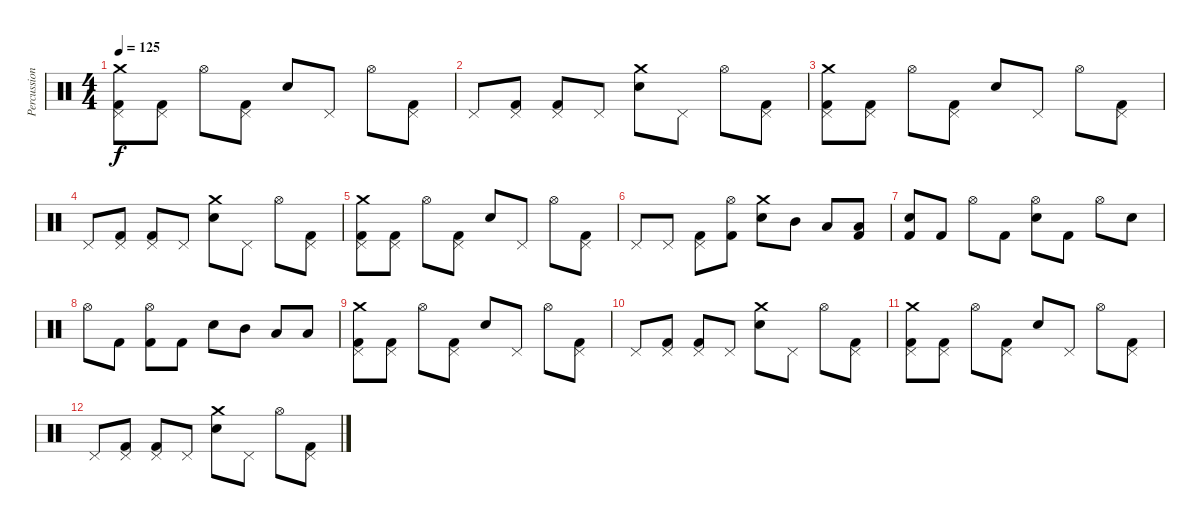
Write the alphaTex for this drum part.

\track ("Percussion" "Percussion") {instrument percussion}
\staff {score}
\articulation defaults
\ts (4 4)
\tempo 125
\clef neutral
\ks c
("Crash medium (hit)" "Pedal Hi-Hat (hit)" "Kick (hit) 2").8{dy f} ("Pedal Hi-Hat (hit)" "Kick (hit) 2").8 "Hi-Hat (open)".8 ("Pedal Hi-Hat (hit)" "Kick (hit) 2").8 "Electric Snare (hit)".8 "Pedal Hi-Hat (hit)".8 "Hi-Hat (open)".8 ("Pedal Hi-Hat (hit)" "Kick (hit) 2").8 |
"Pedal Hi-Hat (hit)".8 ("Pedal Hi-Hat (hit)" "Kick (hit) 2").8 ("Pedal Hi-Hat (hit)" "Kick (hit) 2").8 "Pedal Hi-Hat (hit)".8 ("Crash medium (hit)" "Electric Snare (hit)").8 "Pedal Hi-Hat (hit)".8 "Hi-Hat (open)".8 ("Pedal Hi-Hat (hit)" "Kick (hit) 2").8 |
("Crash medium (hit)" "Pedal Hi-Hat (hit)" "Kick (hit) 2").8 ("Pedal Hi-Hat (hit)" "Kick (hit) 2").8 "Hi-Hat (open)".8 ("Pedal Hi-Hat (hit)" "Kick (hit) 2").8 "Electric Snare (hit)".8 "Pedal Hi-Hat (hit)".8 "Hi-Hat (open)".8 ("Pedal Hi-Hat (hit)" "Kick (hit) 2").8 |
"Pedal Hi-Hat (hit)".8 ("Pedal Hi-Hat (hit)" "Kick (hit) 2").8 ("Pedal Hi-Hat (hit)" "Kick (hit) 2").8 "Pedal Hi-Hat (hit)".8 ("Crash medium (hit)" "Electric Snare (hit)").8 "Pedal Hi-Hat (hit)".8 "Hi-Hat (open)".8 ("Pedal Hi-Hat (hit)" "Kick (hit) 2").8 |
("Crash medium (hit)" "Pedal Hi-Hat (hit)" "Kick (hit) 2").8 ("Pedal Hi-Hat (hit)" "Kick (hit) 2").8 "Hi-Hat (open)".8 ("Pedal Hi-Hat (hit)" "Kick (hit) 2").8 "Electric Snare (hit)".8 "Pedal Hi-Hat (hit)".8 "Hi-Hat (open)".8 ("Pedal Hi-Hat (hit)" "Kick (hit) 2").8 |
"Pedal Hi-Hat (hit)".8 "Pedal Hi-Hat (hit)".8 ("Pedal Hi-Hat (hit)" "Kick (hit) 2").8 ("Hi-Hat (open)" "Kick (hit) 2").8 ("Crash medium (hit)" "Electric Snare (hit)").8 "Mid Tom (hit)".8 "Low Tom (hit)".8 ("Low Floor Tom (hit)" "Kick (hit) 2").8 |
("Electric Snare (hit)" "Kick (hit) 2").8 "Kick (hit) 2".8 "Hi-Hat (open)".8 "Kick (hit) 2".8 ("Hi-Hat (open)" "Electric Snare (hit)").8 "Kick (hit) 2".8 "Hi-Hat (open)".8 "Electric Snare (hit)".8 |
"Hi-Hat (open)".8 "Kick (hit) 2".8 ("Hi-Hat (open)" "Kick (hit) 2").8 "Kick (hit) 2".8 "Electric Snare (hit)".8 "Mid Tom (hit)".8 "Low Tom (hit)".8 "Low Floor Tom (hit)".8 |
("Crash medium (hit)" "Pedal Hi-Hat (hit)" "Kick (hit) 2").8 ("Pedal Hi-Hat (hit)" "Kick (hit) 2").8 "Hi-Hat (open)".8 ("Pedal Hi-Hat (hit)" "Kick (hit) 2").8 "Electric Snare (hit)".8 "Pedal Hi-Hat (hit)".8 "Hi-Hat (open)".8 ("Pedal Hi-Hat (hit)" "Kick (hit) 2").8 |
"Pedal Hi-Hat (hit)".8 ("Pedal Hi-Hat (hit)" "Kick (hit) 2").8 ("Pedal Hi-Hat (hit)" "Kick (hit) 2").8 "Pedal Hi-Hat (hit)".8 ("Crash medium (hit)" "Electric Snare (hit)").8 "Pedal Hi-Hat (hit)".8 "Hi-Hat (open)".8 ("Pedal Hi-Hat (hit)" "Kick (hit) 2").8 |
("Crash medium (hit)" "Pedal Hi-Hat (hit)" "Kick (hit) 2").8 ("Pedal Hi-Hat (hit)" "Kick (hit) 2").8 "Hi-Hat (open)".8 ("Pedal Hi-Hat (hit)" "Kick (hit) 2").8 "Electric Snare (hit)".8 "Pedal Hi-Hat (hit)".8 "Hi-Hat (open)".8 ("Pedal Hi-Hat (hit)" "Kick (hit) 2").8 |
"Pedal Hi-Hat (hit)".8 ("Pedal Hi-Hat (hit)" "Kick (hit) 2").8 ("Pedal Hi-Hat (hit)" "Kick (hit) 2").8 "Pedal Hi-Hat (hit)".8 ("Crash medium (hit)" "Electric Snare (hit)").8 "Pedal Hi-Hat (hit)".8 "Hi-Hat (open)".8 ("Pedal Hi-Hat (hit)" "Kick (hit) 2").8
